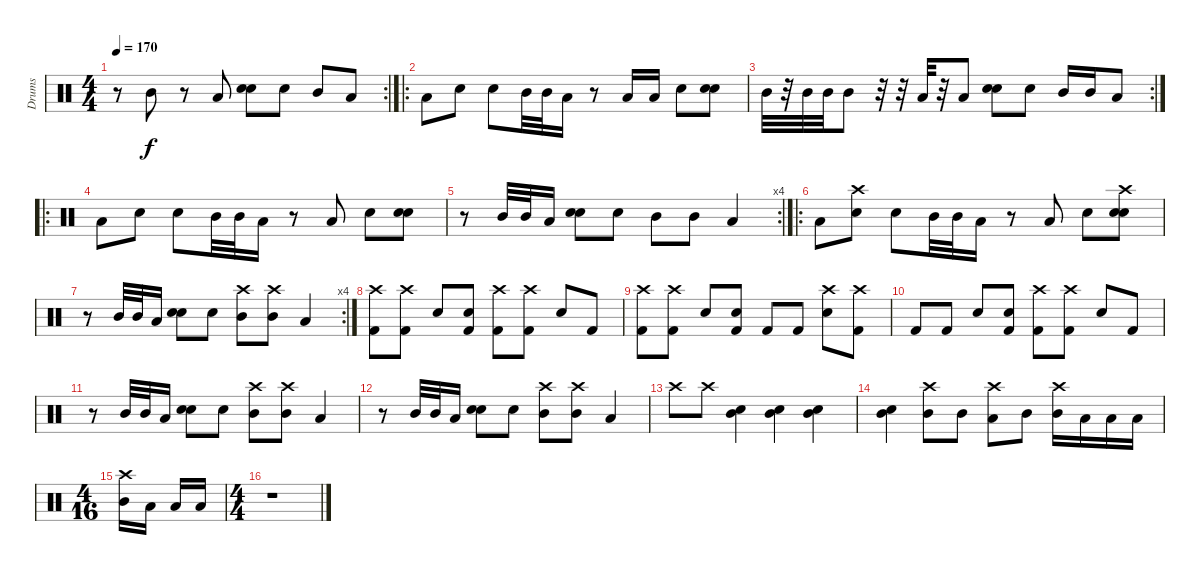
\track ("Drums" "Drums") {instrument percussion}
\staff {score}
\articulation defaults
\rc 2
\ts (4 4)
\tempo 170
\clef neutral
\ks c
r.8{dy f} "Mid Tom (hit)".8 r.8 "Low Tom (hit)".8 ("Electric Snare (hit)" "Snare (hit)").8 "Electric Snare (hit)".8 "Mid Tom (hit)".8 "Low Tom (hit)".8 |
\ro "Low Tom (hit)".8 "Snare (hit)".8 "Electric Snare (hit)".8 "Mid Tom (hit)".32 "Mid Tom (hit)".32 "Low Tom (hit)".16
r.8 "Low Tom (hit)".16 "Low Tom (hit)".16 "Snare (hit)".8 ("Electric Snare (hit)" "Snare (hit)").8 |
\rc 2 "Mid Tom (hit)".32
r.32 "Mid Tom (hit)".32 "Mid Tom (hit)".32 "Mid Tom (hit)".8 r.32 r.32 "Low Tom (hit)".32 r.32 "Low Tom (hit)".8 ("Electric Snare (hit)" "Snare (hit)").8 "Electric Snare (hit)".8 "Mid Tom (hit)".16 "Mid Tom (hit)".16 "Low Tom (hit)".8 |
\ro "Low Tom (hit)".8 "Snare (hit)".8 "Electric Snare (hit)".8 "Mid Tom (hit)".32 "Mid Tom (hit)".32 "Low Tom (hit)".16
r.8 "Low Tom (hit)".8 "Snare (hit)".8 ("Electric Snare (hit)" "Snare (hit)").8 |
\rc 4
r.8 "Mid Tom (hit)".32 "Mid Tom (hit)".32 "Low Tom (hit)".16 ("Electric Snare (hit)" "Snare (hit)").8 "Electric Snare (hit)".8 "Mid Tom (hit)".8 "Mid Tom (hit)".8 "Low Tom (hit)".4 |
\ro "Low Tom (hit)".8
("Crash high (hit)" "Snare (hit)").8 "Electric Snare (hit)".8 "Mid Tom (hit)".32 "Mid Tom (hit)".32 "Low Tom (hit)".16 r.8 "Low Tom (hit)".8 "Snare (hit)".8 ("Crash high (hit)" "Electric Snare (hit)" "Snare (hit)").8 |
\rc 4
r.8 "Mid Tom (hit)".32 "Mid Tom (hit)".32 "Low Tom (hit)".16 ("Electric Snare (hit)" "Snare (hit)").8 "Electric Snare (hit)".8 ("Crash high (hit)" "Mid Tom (hit)").8 ("Crash high (hit)" "Mid Tom (hit)").8 "Low Tom (hit)".4 |
("Crash high (hit)" "Kick (hit) 2").8 ("Crash high (hit)" "Kick (hit) 2").8 "Snare (hit) 2".8 ("Electric Snare (hit)" "Kick (hit) 2").8 ("Crash high (hit)" "Kick (hit) 2").8 ("Crash high (hit)" "Kick (hit) 2").8 "Snare (hit) 2".8 "Kick (hit) 2".8 |
("Crash high (hit)" "Kick (hit) 2").8 ("Crash high (hit)" "Kick (hit) 2").8 "Snare (hit) 2".8 ("Electric Snare (hit)" "Kick (hit) 2").8 "Kick (hit) 2".8 "Kick (hit) 2".8 ("Snare (hit) 2" "Crash high (hit)").8 ("Crash high (hit)" "Kick (hit) 2").8 |
"Kick (hit) 2".8 "Kick (hit) 2".8 "Snare (hit) 2".8 ("Electric Snare (hit)" "Kick (hit) 2").8 ("Crash high (hit)" "Kick (hit) 2").8 ("Crash high (hit)" "Kick (hit) 2").8 "Snare (hit) 2".8 "Kick (hit) 2".8 |
r.8 "Mid Tom (hit)".32 "Mid Tom (hit)".32 "Low Tom (hit)".16 ("Electric Snare (hit)" "Snare (hit)").8 "Electric Snare (hit)".8 ("Crash high (hit)" "Mid Tom (hit)").8 ("Crash high (hit)" "Mid Tom (hit)").8 "Low Tom (hit)".4 |
r.8 "Mid Tom (hit)".32 "Mid Tom (hit)".32 "Low Tom (hit)".16 ("Electric Snare (hit)" "Snare (hit)").8 "Electric Snare (hit)".8 ("Crash high (hit)" "Mid Tom (hit)").8 ("Crash high (hit)" "Mid Tom (hit)").8 "Low Tom (hit)".4 |
"Crash high (hit)".8 "Crash high (hit)".8 ("Electric Snare (hit)" "Mid Tom (hit)").4 ("Electric Snare (hit)" "Mid Tom (hit)").4 ("Electric Snare (hit)" "Mid Tom (hit)").4 |
("Electric Snare (hit)" "Mid Tom (hit)").4 ("Crash high (hit)" "Mid Tom (hit)").8 "Mid Tom (hit)".8 ("Crash high (hit)" "Low Tom (hit)").8 "Mid Tom (hit)".8 ("Crash high (hit)" "Mid Tom (hit)").16 "Low Tom (hit)".16 "Low Tom (hit)".16 "Low Tom (hit)".16 |
\ts (4 16)
("Crash high (hit)" "Mid Tom (hit)").16 "Low Tom (hit)".16 "Low Tom (hit)".16 "Low Tom (hit)".16 |
\ts (4 4)
r.1
